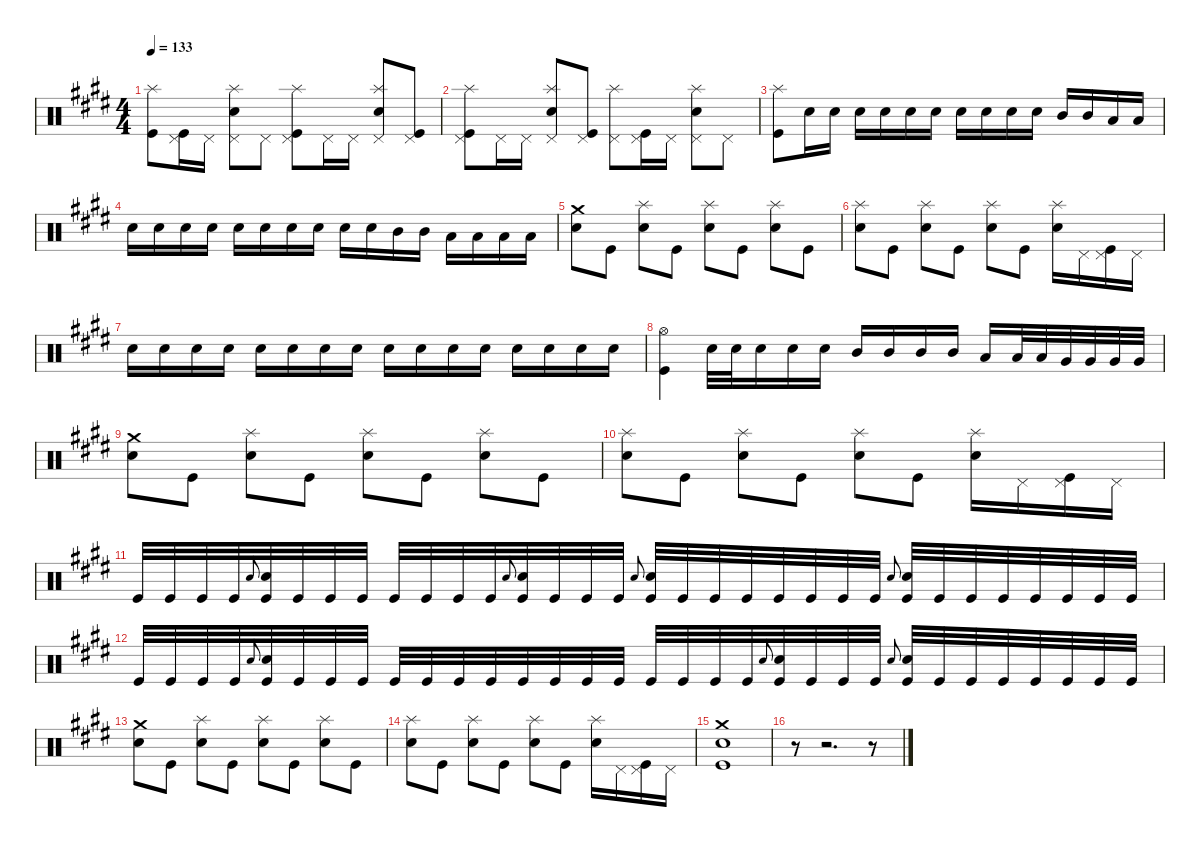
\defaultSystemsLayout 4
\hideDynamics
\bracketExtendMode nobrackets
\singleTrackTrackNamePolicy hidden
\multiTrackTrackNamePolicy hidden
\firstSystemTrackNameMode fullname
\firstSystemTrackNameOrientation horizontal
\otherSystemsTrackNameOrientation horizontal
\track ("RVP" "drm.") {instrument percussion}
\staff {score}
\articulation defaults
\ts (4 4)
\tempo 133
\clef neutral
\ks e
("Splash (hit)"{acc forcenatural} "Kick (hit)"{acc forcenatural}).8{dy f beam Down} ("Pedal Hi-Hat (hit)"{acc forcenatural} "Kick (hit)"{acc forcenatural}).16{beam Down} "Pedal Hi-Hat (hit)"{acc forcenatural}.16{beam Down} ("Snare (hit) 2"{acc forcenatural} "Pedal Hi-Hat (hit)"{acc forcenatural} "Splash (hit)"{acc forcenatural}).8{dy fff beam Down} "Pedal Hi-Hat (hit)"{acc forcenatural}.8{dy f beam Down} ("Pedal Hi-Hat (hit)"{acc forcenatural} "Splash (hit)"{acc forcenatural} "Kick (hit)"{acc forcenatural}).8{beam Down} "Pedal Hi-Hat (hit)"{acc forcenatural}.16{beam Down} "Pedal Hi-Hat (hit)"{acc forcenatural}.16{beam Down} ("Snare (hit) 2"{acc forcenatural} "Pedal Hi-Hat (hit)"{acc forcenatural} "Splash (hit)"{acc forcenatural}).8{dy fff beam Up} ("Pedal Hi-Hat (hit)"{acc forcenatural} "Kick (hit)"{acc forcenatural}).8{dy f beam Up} |
("Pedal Hi-Hat (hit)"{acc forcenatural} "Splash (hit)"{acc forcenatural} "Kick (hit)"{acc forcenatural}).8{beam Down} "Pedal Hi-Hat (hit)"{acc forcenatural}.16{beam Down} "Pedal Hi-Hat (hit)"{acc forcenatural}.16{beam Down} ("Snare (hit) 2"{acc forcenatural} "Pedal Hi-Hat (hit)"{acc forcenatural} "Splash (hit)"{acc forcenatural}).8{dy fff beam Up} ("Pedal Hi-Hat (hit)"{acc forcenatural} "Kick (hit)"{acc forcenatural}).8{dy f beam Up} ("Pedal Hi-Hat (hit)"{acc forcenatural} "Splash (hit)"{acc forcenatural}).8{beam Down} ("Pedal Hi-Hat (hit)"{acc forcenatural} "Kick (hit)"{acc forcenatural}).16{beam Down} "Pedal Hi-Hat (hit)"{acc forcenatural}.16{beam Down} ("Snare (hit) 2"{acc forcenatural} "Pedal Hi-Hat (hit)"{acc forcenatural} "Splash (hit)"{acc forcenatural}).8{dy fff beam Down} "Pedal Hi-Hat (hit)"{acc forcenatural}.8{dy f beam Down} |
("Splash (hit)"{acc forcenatural} "Kick (hit)"{acc forcenatural}).8{beam Down} "Snare (hit) 2"{acc forcenatural}.16{dy fff beam Down} "Snare (hit) 2"{acc forcenatural}.16{beam Down} "Snare (hit) 2"{acc forcenatural}.16{beam Down} "Snare (hit) 2"{acc forcenatural}.16{beam Down} "Snare (hit) 2"{acc forcenatural}.16{beam Down} "Snare (hit) 2"{acc forcenatural}.16{beam Down} "Snare (hit) 2"{acc forcenatural}.16{beam Down} "Snare (hit) 2"{acc forcenatural}.16{beam Down} "Snare (hit) 2"{acc forcenatural}.16{beam Down} "Snare (hit) 2"{acc forcenatural}.16{beam Down} "Mid Tom (hit)"{acc forcenatural}.16{beam Up} "Mid Tom (hit)"{acc forcenatural}.16{beam Up} "Low Tom (hit)"{acc forcenatural}.16{beam Up} "Low Tom (hit)"{acc forcenatural}.16{beam Up} |
"Snare (hit) 2"{acc forcenatural}.16{beam Down} "Snare (hit) 2"{acc forcenatural}.16{beam Down} "Snare (hit) 2"{acc forcenatural}.16{beam Down} "Snare (hit) 2"{acc forcenatural}.16{beam Down} "Snare (hit) 2"{acc forcenatural}.16{beam Down} "Snare (hit) 2"{acc forcenatural}.16{beam Down} "Snare (hit) 2"{acc forcenatural}.16{beam Down} "Snare (hit) 2"{acc forcenatural}.16{beam Down} "Snare (hit) 2"{acc forcenatural}.16{beam Down} "Snare (hit) 2"{acc forcenatural}.16{beam Down} "Mid Tom (hit)"{acc forcenatural}.16{beam Down} "Mid Tom (hit)"{acc forcenatural}.16{beam Down} "Low Tom (hit)"{acc forcenatural}.16{beam Down} "Low Tom (hit)"{acc forcenatural}.16{beam Down} "Low Floor Tom (hit)"{acc forcenatural}.16{beam Down} "Low Floor Tom (hit)"{acc forcenatural}.16{beam Down} |
("Snare (hit) 2"{acc forcenatural} "Crash medium (hit)"{acc forcenatural}).8{beam Down} "Kick (hit)"{acc forcenatural}.8{beam Down} ("Snare (hit) 2"{acc forcenatural} "Splash (hit)"{acc forcenatural}).8{beam Down} "Kick (hit)"{acc forcenatural}.8{beam Down} ("Snare (hit) 2"{acc forcenatural} "Splash (hit)"{acc forcenatural}).8{beam Down} "Kick (hit)"{acc forcenatural}.8{beam Down} ("Snare (hit) 2"{acc forcenatural} "Splash (hit)"{acc forcenatural}).8{beam Down} "Kick (hit)"{acc forcenatural}.8{beam Down} |
("Snare (hit) 2"{acc forcenatural} "Splash (hit)"{acc forcenatural}).8{beam Down} "Kick (hit)"{acc forcenatural}.8{beam Down} ("Snare (hit) 2"{acc forcenatural} "Splash (hit)"{acc forcenatural}).8{beam Down} "Kick (hit)"{acc forcenatural}.8{beam Down} ("Snare (hit) 2"{acc forcenatural} "Splash (hit)"{acc forcenatural}).8{beam Down} "Kick (hit)"{acc forcenatural}.8{beam Down} ("Snare (hit) 2"{acc forcenatural} "Splash (hit)"{acc forcenatural}).16{beam Down} "Pedal Hi-Hat (hit)"{acc forcenatural}.16{beam Down} ("Pedal Hi-Hat (hit)"{acc forcenatural} "Kick (hit)"{acc forcenatural}).16{beam Down} "Pedal Hi-Hat (hit)"{acc forcenatural}.16{beam Down} |
"Snare (hit) 2"{acc forcenatural}.16{beam Down} "Snare (hit) 2"{acc forcenatural}.16{beam Down} "Snare (hit) 2"{acc forcenatural}.16{beam Down} "Snare (hit) 2"{acc forcenatural}.16{beam Down} "Snare (hit) 2"{acc forcenatural}.16{beam Down} "Snare (hit) 2"{acc forcenatural}.16{beam Down} "Snare (hit) 2"{acc forcenatural}.16{beam Down} "Snare (hit) 2"{acc forcenatural}.16{beam Down} "Snare (hit) 2"{acc forcenatural}.16{beam Down} "Snare (hit) 2"{acc forcenatural}.16{beam Down} "Snare (hit) 2"{acc forcenatural}.16{beam Down} "Snare (hit) 2"{acc forcenatural}.16{beam Down} "Snare (hit) 2"{acc forcenatural}.16{beam Down} "Snare (hit) 2"{acc forcenatural}.16{beam Down} "Snare (hit) 2"{acc forcenatural}.16{beam Down} "Snare (hit) 2"{acc forcenatural}.16{beam Down} |
("Hi-Hat (open)"{acc forcenatural} "Kick (hit)"{acc forcenatural}).4{beam Down} "Snare (hit) 2"{acc forcenatural}.32{beam Down} "Snare (hit) 2"{acc forcenatural}.32{beam Down} "Snare (hit) 2"{acc forcenatural}.16{beam Down} "Snare (hit) 2"{acc forcenatural}.16{beam Down} "Snare (hit) 2"{acc forcenatural}.16{beam Down} "Mid Tom (hit)"{acc forcenatural}.16{beam Up} "Mid Tom (hit)"{acc forcenatural}.16{beam Up} "Mid Tom (hit)"{acc forcenatural}.16{beam Up} "Mid Tom (hit)"{acc forcenatural}.16{beam Up} "Low Tom (hit)"{acc forcenatural}.16{beam Up} "Low Tom (hit)"{acc forcenatural}.32{beam Up} "Low Tom (hit)"{acc forcenatural}.32{beam Up} "Very Low Tom (hit)"{acc forcenatural}.32{beam Up} "Very Low Tom (hit)"{acc forcenatural}.32{beam Up} "Very Low Tom (hit)"{acc forcenatural}.32{beam Up} "Very Low Tom (hit)"{acc forcenatural}.32{beam Up} |
("Snare (hit) 2"{acc forcenatural} "Crash medium (hit)"{acc forcenatural}).8{beam Down} "Kick (hit)"{acc forcenatural}.8{beam Down} ("Snare (hit) 2"{acc forcenatural} "Splash (hit)"{acc forcenatural}).8{beam Down} "Kick (hit)"{acc forcenatural}.8{beam Down} ("Snare (hit) 2"{acc forcenatural} "Splash (hit)"{acc forcenatural}).8{beam Down} "Kick (hit)"{acc forcenatural}.8{beam Down} ("Snare (hit) 2"{acc forcenatural} "Splash (hit)"{acc forcenatural}).8{beam Down} "Kick (hit)"{acc forcenatural}.8{beam Down} |
("Snare (hit) 2"{acc forcenatural} "Splash (hit)"{acc forcenatural}).8{beam Down} "Kick (hit)"{acc forcenatural}.8{beam Down} ("Snare (hit) 2"{acc forcenatural} "Splash (hit)"{acc forcenatural}).8{beam Down} "Kick (hit)"{acc forcenatural}.8{beam Down} ("Snare (hit) 2"{acc forcenatural} "Splash (hit)"{acc forcenatural}).8{beam Down} "Kick (hit)"{acc forcenatural}.8{beam Down} ("Snare (hit) 2"{acc forcenatural} "Splash (hit)"{acc forcenatural}).16{beam Down} "Pedal Hi-Hat (hit)"{acc forcenatural}.16{beam Down} ("Pedal Hi-Hat (hit)"{acc forcenatural} "Kick (hit)"{acc forcenatural}).16{beam Down} "Pedal Hi-Hat (hit)"{acc forcenatural}.16{beam Down} |
"Kick (hit)"{acc forcenatural}.32{beam Up} "Kick (hit)"{acc forcenatural}.32{beam Up} "Kick (hit)"{acc forcenatural}.32{beam Up} "Kick (hit)"{acc forcenatural}.32{beam Up} "Snare (hit) 2"{acc forcenatural}.8{gr onbeat dy ff beam Up} ("Snare (hit) 2"{acc forcenatural} "Kick (hit)"{acc forcenatural}).32{dy fff beam Up} "Kick (hit)"{acc forcenatural}.32{beam Up} "Kick (hit)"{acc forcenatural}.32{beam Up} "Kick (hit)"{acc forcenatural}.32{beam Up} "Kick (hit)"{acc forcenatural}.32{beam Up} "Kick (hit)"{acc forcenatural}.32{beam Up} "Kick (hit)"{acc forcenatural}.32{beam Up} "Kick (hit)"{acc forcenatural}.32{beam Up} "Snare (hit) 2"{acc forcenatural}.8{gr onbeat dy ff beam Up} ("Snare (hit) 2"{acc forcenatural} "Kick (hit)"{acc forcenatural}).32{dy fff beam Up} "Kick (hit)"{acc forcenatural}.32{beam Up} "Kick (hit)"{acc forcenatural}.32{beam Up} "Kick (hit)"{acc forcenatural}.32{beam Up} "Snare (hit) 2"{acc forcenatural}.8{gr onbeat dy ff beam Up} ("Snare (hit) 2"{acc forcenatural} "Kick (hit)"{acc forcenatural}).32{dy fff beam Up} "Kick (hit)"{acc forcenatural}.32{beam Up} "Kick (hit)"{acc forcenatural}.32{beam Up} "Kick (hit)"{acc forcenatural}.32{beam Up} "Kick (hit)"{acc forcenatural}.32{beam Up} "Kick (hit)"{acc forcenatural}.32{beam Up} "Kick (hit)"{acc forcenatural}.32{beam Up} "Kick (hit)"{acc forcenatural}.32{beam Up} "Snare (hit) 2"{acc forcenatural}.8{gr onbeat dy ff beam Up} ("Snare (hit) 2"{acc forcenatural} "Kick (hit)"{acc forcenatural}).32{dy fff beam Up} "Kick (hit)"{acc forcenatural}.32{beam Up} "Kick (hit)"{acc forcenatural}.32{beam Up} "Kick (hit)"{acc forcenatural}.32{beam Up} "Kick (hit)"{acc forcenatural}.32{beam Up} "Kick (hit)"{acc forcenatural}.32{beam Up} "Kick (hit)"{acc forcenatural}.32{beam Up} "Kick (hit)"{acc forcenatural}.32{beam Up} |
"Kick (hit)"{acc forcenatural}.32{beam Up} "Kick (hit)"{acc forcenatural}.32{beam Up} "Kick (hit)"{acc forcenatural}.32{beam Up} "Kick (hit)"{acc forcenatural}.32{beam Up} "Snare (hit) 2"{acc forcenatural}.8{gr onbeat dy ff beam Up} ("Snare (hit) 2"{acc forcenatural} "Kick (hit)"{acc forcenatural}).32{dy fff beam Up} "Kick (hit)"{acc forcenatural}.32{beam Up} "Kick (hit)"{acc forcenatural}.32{beam Up} "Kick (hit)"{acc forcenatural}.32{beam Up} "Kick (hit)"{acc forcenatural}.32{beam Up} "Kick (hit)"{acc forcenatural}.32{beam Up} "Kick (hit)"{acc forcenatural}.32{beam Up} "Kick (hit)"{acc forcenatural}.32{beam Up} "Kick (hit)"{acc forcenatural}.32{beam Up} "Kick (hit)"{acc forcenatural}.32{beam Up} "Kick (hit)"{acc forcenatural}.32{beam Up} "Kick (hit)"{acc forcenatural}.32{beam Up} "Kick (hit)"{acc forcenatural}.32{beam Up} "Kick (hit)"{acc forcenatural}.32{beam Up} "Kick (hit)"{acc forcenatural}.32{beam Up} "Kick (hit)"{acc forcenatural}.32{beam Up} "Snare (hit) 2"{acc forcenatural}.8{gr onbeat dy ff beam Up} ("Snare (hit) 2"{acc forcenatural} "Kick (hit)"{acc forcenatural}).32{dy fff beam Up} "Kick (hit)"{acc forcenatural}.32{beam Up} "Kick (hit)"{acc forcenatural}.32{beam Up} "Kick (hit)"{acc forcenatural}.32{beam Up} "Snare (hit) 2"{acc forcenatural}.8{gr onbeat dy ff beam Up} ("Snare (hit) 2"{acc forcenatural} "Kick (hit)"{acc forcenatural}).32{dy fff beam Up} "Kick (hit)"{acc forcenatural}.32{beam Up} "Kick (hit)"{acc forcenatural}.32{beam Up} "Kick (hit)"{acc forcenatural}.32{beam Up} "Kick (hit)"{acc forcenatural}.32{beam Up} "Kick (hit)"{acc forcenatural}.32{beam Up} "Kick (hit)"{acc forcenatural}.32{beam Up} "Kick (hit)"{acc forcenatural}.32{beam Up} |
("Snare (hit) 2"{acc forcenatural} "Crash medium (hit)"{acc forcenatural}).8{beam Down} "Kick (hit)"{acc forcenatural}.8{beam Down} ("Snare (hit) 2"{acc forcenatural} "Splash (hit)"{acc forcenatural}).8{beam Down} "Kick (hit)"{acc forcenatural}.8{beam Down} ("Snare (hit) 2"{acc forcenatural} "Splash (hit)"{acc forcenatural}).8{beam Down} "Kick (hit)"{acc forcenatural}.8{beam Down} ("Snare (hit) 2"{acc forcenatural} "Splash (hit)"{acc forcenatural}).8{beam Down} "Kick (hit)"{acc forcenatural}.8{beam Down} |
("Snare (hit) 2"{acc forcenatural} "Splash (hit)"{acc forcenatural}).8{beam Down} "Kick (hit)"{acc forcenatural}.8{beam Down} ("Snare (hit) 2"{acc forcenatural} "Splash (hit)"{acc forcenatural}).8{beam Down} "Kick (hit)"{acc forcenatural}.8{beam Down} ("Snare (hit) 2"{acc forcenatural} "Splash (hit)"{acc forcenatural}).8{beam Down} "Kick (hit)"{acc forcenatural}.8{beam Down} ("Snare (hit) 2"{acc forcenatural} "Splash (hit)"{acc forcenatural}).16{beam Down} "Pedal Hi-Hat (hit)"{acc forcenatural}.16{beam Down} ("Pedal Hi-Hat (hit)"{acc forcenatural} "Kick (hit)"{acc forcenatural}).16{beam Down} "Pedal Hi-Hat (hit)"{acc forcenatural}.16{beam Down} |
("Snare (hit) 2"{acc forcenatural} "Crash medium (hit)"{acc forcenatural} "Kick (hit)"{acc forcenatural}).1{dy f beam Down} |
r.8{beam Down} r.2{d beam Down} r.8{beam Down}
